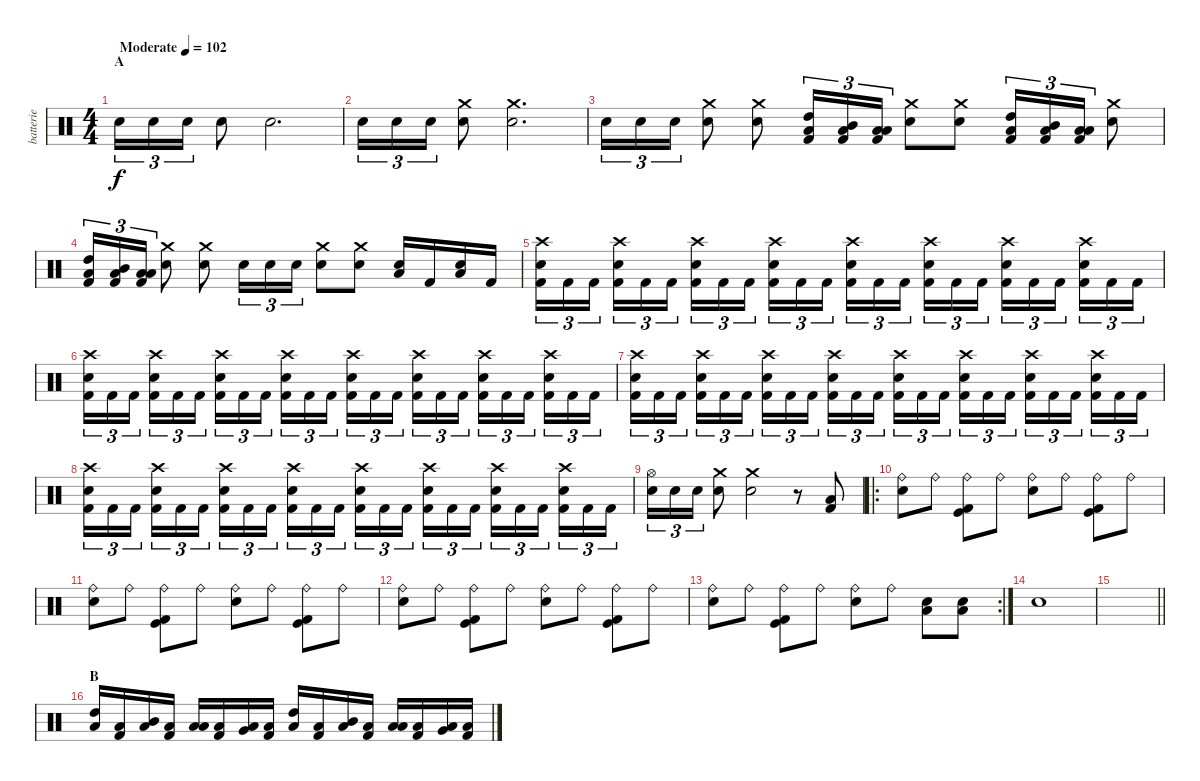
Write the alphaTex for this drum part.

\track ("batterie" "batterie") {instrument percussion}
\staff {score}
\articulation defaults
\ts (4 4)
\section ("" "A")
\tempo (102 "Moderate")
\clef neutral
\ks c "Snare (hit) 2".16{tu (3 2) dy f} "Snare (hit) 2".16{tu (3 2)} "Snare (hit) 2".16{tu (3 2)} "Snare (hit) 2".8 "Snare (hit) 2".2{d}
|
"Snare (hit) 2".16{tu (3 2)} "Snare (hit) 2".16{tu (3 2)} "Snare (hit) 2".16{tu (3 2)} ("Snare (hit) 2" "Crash medium (hit)").8 ("Snare (hit) 2" "Crash medium (hit)").2{d} |
"Snare (hit) 2".16{tu (3 2)} "Snare (hit) 2".16{tu (3 2)} "Snare (hit) 2".16{tu (3 2)} ("Snare (hit) 2" "Crash medium (hit)").8 ("Snare (hit) 2" "Crash medium (hit)").8 ("High Tom (hit)" "Low Floor Tom (hit)" "Kick (hit) 2").16{tu (3 2)} ("Mid Tom (hit)" "Low Floor Tom (hit)" "Kick (hit) 2").16{tu (3 2)} ("Low Tom (hit)" "Low Floor Tom (hit)" "Kick (hit) 2").16{tu (3 2)} ("Snare (hit) 2" "Crash medium (hit)").8 ("Snare (hit) 2" "Crash medium (hit)").8 ("High Tom (hit)" "Low Floor Tom (hit)" "Kick (hit) 2").16{tu (3 2)} ("Mid Tom (hit)" "Low Floor Tom (hit)" "Kick (hit) 2").16{tu (3 2)} ("Low Tom (hit)" "Low Floor Tom (hit)" "Kick (hit) 2").16{tu (3 2)} ("Snare (hit) 2" "Crash medium (hit)").8 |
("High Tom (hit)" "Low Floor Tom (hit)" "Kick (hit) 2").16{tu (3 2)} ("Mid Tom (hit)" "Low Floor Tom (hit)" "Kick (hit) 2").16{tu (3 2)} ("Low Tom (hit)" "Low Floor Tom (hit)" "Kick (hit) 2").16{tu (3 2)} ("Snare (hit) 2" "Crash medium (hit)").8 ("Snare (hit) 2" "Crash medium (hit)").8 "Snare (hit) 2".16{tu (3 2)} "Snare (hit) 2".16{tu (3 2)} "Snare (hit) 2".16{tu (3 2)} ("Snare (hit) 2" "Crash medium (hit)").8 ("Snare (hit) 2" "Crash medium (hit)").8 ("Electric Snare (hit)" "Low Floor Tom (hit)").16 "Kick (hit) 2".16 ("Electric Snare (hit)" "Low Floor Tom (hit)").16 "Kick (hit) 2".16 |
("Snare (hit) 2" "Crash high (hit)" "Kick (hit) 2").16{tu (3 2)} "Kick (hit) 2".16{tu (3 2)} "Kick (hit) 2".16{tu (3 2) beam splitsecondary} ("Snare (hit) 2" "Crash high (hit)" "Kick (hit) 2").16{tu (3 2)} "Kick (hit) 2".16{tu (3 2)} "Kick (hit) 2".16{tu (3 2)} ("Snare (hit) 2" "Crash high (hit)" "Kick (hit) 2").16{tu (3 2)} "Kick (hit) 2".16{tu (3 2)} "Kick (hit) 2".16{tu (3 2) beam splitsecondary} ("Snare (hit) 2" "Crash high (hit)" "Kick (hit) 2").16{tu (3 2)} "Kick (hit) 2".16{tu (3 2)} "Kick (hit) 2".16{tu (3 2)} ("Snare (hit) 2" "Crash high (hit)" "Kick (hit) 2").16{tu (3 2)} "Kick (hit) 2".16{tu (3 2)} "Kick (hit) 2".16{tu (3 2) beam splitsecondary} ("Snare (hit) 2" "Crash high (hit)" "Kick (hit) 2").16{tu (3 2)} "Kick (hit) 2".16{tu (3 2)} "Kick (hit) 2".16{tu (3 2)} ("Snare (hit) 2" "Crash high (hit)" "Kick (hit) 2").16{tu (3 2)} "Kick (hit) 2".16{tu (3 2)} "Kick (hit) 2".16{tu (3 2) beam splitsecondary} ("Snare (hit) 2" "Crash high (hit)" "Kick (hit) 2").16{tu (3 2)} "Kick (hit) 2".16{tu (3 2)} "Kick (hit) 2".16{tu (3 2)} |
("Snare (hit) 2" "Crash high (hit)" "Kick (hit) 2").16{tu (3 2)} "Kick (hit) 2".16{tu (3 2)} "Kick (hit) 2".16{tu (3 2) beam splitsecondary} ("Snare (hit) 2" "Crash high (hit)" "Kick (hit) 2").16{tu (3 2)} "Kick (hit) 2".16{tu (3 2)} "Kick (hit) 2".16{tu (3 2)} ("Snare (hit) 2" "Crash high (hit)" "Kick (hit) 2").16{tu (3 2)} "Kick (hit) 2".16{tu (3 2)} "Kick (hit) 2".16{tu (3 2) beam splitsecondary} ("Snare (hit) 2" "Crash high (hit)" "Kick (hit) 2").16{tu (3 2)} "Kick (hit) 2".16{tu (3 2)} "Kick (hit) 2".16{tu (3 2)} ("Snare (hit) 2" "Crash high (hit)" "Kick (hit) 2").16{tu (3 2)} "Kick (hit) 2".16{tu (3 2)} "Kick (hit) 2".16{tu (3 2) beam splitsecondary} ("Snare (hit) 2" "Crash high (hit)" "Kick (hit) 2").16{tu (3 2)} "Kick (hit) 2".16{tu (3 2)} "Kick (hit) 2".16{tu (3 2)} ("Snare (hit) 2" "Crash high (hit)" "Kick (hit) 2").16{tu (3 2)} "Kick (hit) 2".16{tu (3 2)} "Kick (hit) 2".16{tu (3 2) beam splitsecondary} ("Snare (hit) 2" "Crash high (hit)" "Kick (hit) 2").16{tu (3 2)} "Kick (hit) 2".16{tu (3 2)} "Kick (hit) 2".16{tu (3 2)} |
("Snare (hit) 2" "Crash high (hit)" "Kick (hit) 2").16{tu (3 2)} "Kick (hit) 2".16{tu (3 2)} "Kick (hit) 2".16{tu (3 2) beam splitsecondary} ("Snare (hit) 2" "Crash high (hit)" "Kick (hit) 2").16{tu (3 2)} "Kick (hit) 2".16{tu (3 2)} "Kick (hit) 2".16{tu (3 2)} ("Snare (hit) 2" "Crash high (hit)" "Kick (hit) 2").16{tu (3 2)} "Kick (hit) 2".16{tu (3 2)} "Kick (hit) 2".16{tu (3 2) beam splitsecondary} ("Snare (hit) 2" "Crash high (hit)" "Kick (hit) 2").16{tu (3 2)} "Kick (hit) 2".16{tu (3 2)} "Kick (hit) 2".16{tu (3 2)} ("Snare (hit) 2" "Crash high (hit)" "Kick (hit) 2").16{tu (3 2)} "Kick (hit) 2".16{tu (3 2)} "Kick (hit) 2".16{tu (3 2) beam splitsecondary} ("Snare (hit) 2" "Crash high (hit)" "Kick (hit) 2").16{tu (3 2)} "Kick (hit) 2".16{tu (3 2)} "Kick (hit) 2".16{tu (3 2)} ("Snare (hit) 2" "Crash high (hit)" "Kick (hit) 2").16{tu (3 2)} "Kick (hit) 2".16{tu (3 2)} "Kick (hit) 2".16{tu (3 2) beam splitsecondary} ("Snare (hit) 2" "Crash high (hit)" "Kick (hit) 2").16{tu (3 2)} "Kick (hit) 2".16{tu (3 2)} "Kick (hit) 2".16{tu (3 2)} |
("Snare (hit) 2" "Crash high (hit)" "Kick (hit) 2").16{tu (3 2)} "Kick (hit) 2".16{tu (3 2)} "Kick (hit) 2".16{tu (3 2) beam splitsecondary} ("Snare (hit) 2" "Crash high (hit)" "Kick (hit) 2").16{tu (3 2)} "Kick (hit) 2".16{tu (3 2)} "Kick (hit) 2".16{tu (3 2)} ("Snare (hit) 2" "Crash high (hit)" "Kick (hit) 2").16{tu (3 2)} "Kick (hit) 2".16{tu (3 2)} "Kick (hit) 2".16{tu (3 2) beam splitsecondary} ("Snare (hit) 2" "Crash high (hit)" "Kick (hit) 2").16{tu (3 2)} "Kick (hit) 2".16{tu (3 2)} "Kick (hit) 2".16{tu (3 2)} ("Snare (hit) 2" "Crash high (hit)" "Kick (hit) 2").16{tu (3 2)} "Kick (hit) 2".16{tu (3 2)} "Kick (hit) 2".16{tu (3 2) beam splitsecondary} ("Snare (hit) 2" "Crash high (hit)" "Kick (hit) 2").16{tu (3 2)} "Kick (hit) 2".16{tu (3 2)} "Kick (hit) 2".16{tu (3 2)} ("Snare (hit) 2" "Crash high (hit)" "Kick (hit) 2").16{tu (3 2)} "Kick (hit) 2".16{tu (3 2)} "Kick (hit) 2".16{tu (3 2) beam splitsecondary} ("Snare (hit) 2" "Crash high (hit)" "Kick (hit) 2").16{tu (3 2)} "Kick (hit) 2".16{tu (3 2)} "Kick (hit) 2".16{tu (3 2)} |
("Snare (hit) 2" "Hi-Hat (open)").16{tu (3 2)} "Snare (hit) 2".16{tu (3 2)} "Snare (hit) 2".16{tu (3 2)} ("Snare (hit) 2" "Crash medium (hit)").8 ("Snare (hit) 2" "Crash medium (hit)").2 r.8 ("Low Floor Tom (hit)" "Kick (hit) 2").8 |
\ro
("Snare (hit) 2" "Ride (bell)").8 "Ride (bell)".8 ("Ride (bell)" "Kick (hit)" "Kick (hit) 2").8 "Ride (bell)".8 ("Snare (hit) 2" "Ride (bell)").8 "Ride (bell)".8 ("Ride (bell)" "Kick (hit)" "Kick (hit) 2").8 "Ride (bell)".8 |
("Snare (hit) 2" "Ride (bell)").8 "Ride (bell)".8 ("Ride (bell)" "Kick (hit)" "Kick (hit) 2").8 "Ride (bell)".8 ("Snare (hit) 2" "Ride (bell)").8 "Ride (bell)".8 ("Ride (bell)" "Kick (hit)" "Kick (hit) 2").8 "Ride (bell)".8 |
("Snare (hit) 2" "Ride (bell)").8 "Ride (bell)".8 ("Ride (bell)" "Kick (hit)" "Kick (hit) 2").8 "Ride (bell)".8 ("Snare (hit) 2" "Ride (bell)").8 "Ride (bell)".8 ("Ride (bell)" "Kick (hit)" "Kick (hit) 2").8 "Ride (bell)".8 |
\rc 2
("Snare (hit) 2" "Ride (bell)").8 "Ride (bell)".8 ("Ride (bell)" "Kick (hit)" "Kick (hit) 2").8 "Ride (bell)".8 ("Snare (hit) 2" "Ride (bell)").8 "Ride (bell)".8 ("Electric Snare (hit)" "Low Floor Tom (hit)").8 ("Electric Snare (hit)" "Low Floor Tom (hit)").8 |
"Snare (hit) 2".1 |
\barLineRight lightlight
|
\section ("" "B")
("High Tom (hit)" "Low Floor Tom (hit)").16 ("Low Floor Tom (hit)" "Kick (hit) 2").16 ("Mid Tom (hit)" "Low Floor Tom (hit)").16 ("Low Floor Tom (hit)" "Kick (hit) 2").16 ("Low Tom (hit)" "Low Floor Tom (hit)").16 ("Low Floor Tom (hit)" "Kick (hit) 2").16 ("Very Low Tom (hit)" "Low Floor Tom (hit)").16 ("Low Floor Tom (hit)" "Kick (hit) 2").16 ("High Tom (hit)" "Low Floor Tom (hit)").16 ("Low Floor Tom (hit)" "Kick (hit) 2").16 ("Mid Tom (hit)" "Low Floor Tom (hit)").16 ("Low Floor Tom (hit)" "Kick (hit) 2").16 ("Low Tom (hit)" "Low Floor Tom (hit)").16 ("Low Floor Tom (hit)" "Kick (hit) 2").16 ("Very Low Tom (hit)" "Low Floor Tom (hit)").16 ("Low Floor Tom (hit)" "Kick (hit) 2").16
